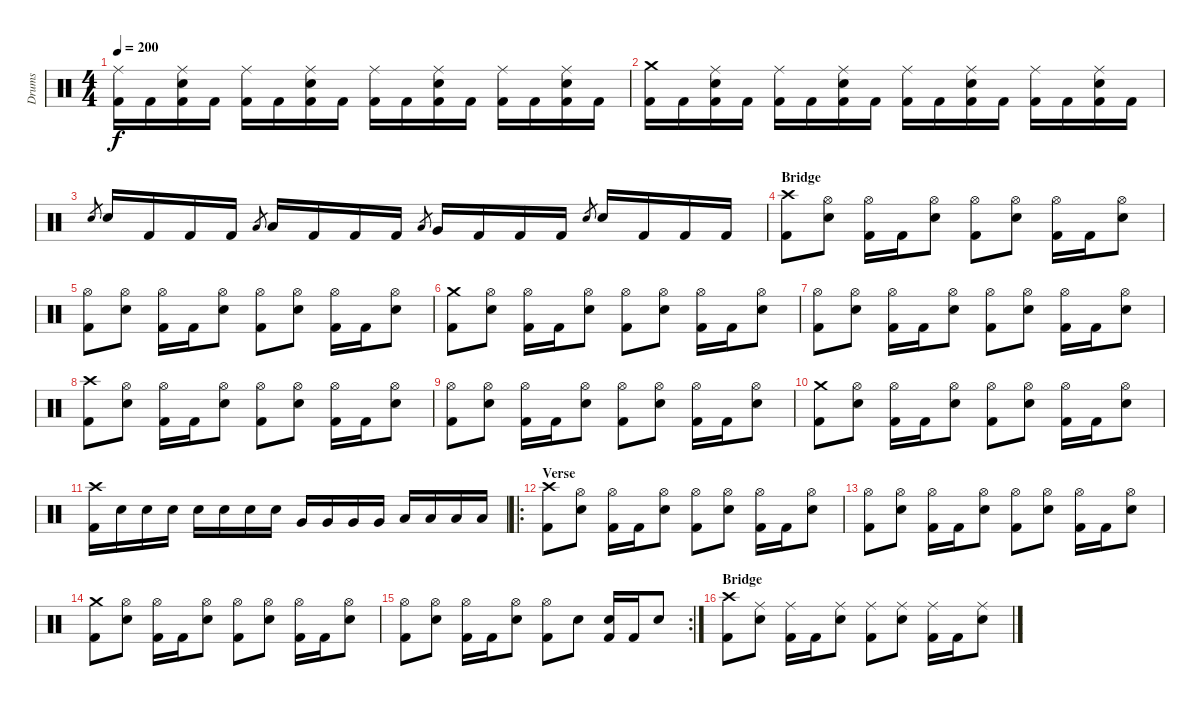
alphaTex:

\track ("Drums" "Drums") {instrument percussion}
\staff {score}
\articulation defaults
\ts (4 4)
\tempo 200
\clef neutral
\ks c
("Ride (middle)" "Kick (hit) 2").16{dy f} "Kick (hit) 2".16 ("Ride (middle)" "Electric Snare (hit)" "Kick (hit) 2").16 "Kick (hit) 2".16 ("Ride (middle)" "Kick (hit) 2").16 "Kick (hit) 2".16 ("Ride (middle)" "Electric Snare (hit)" "Kick (hit) 2").16 "Kick (hit) 2".16 ("Ride (middle)" "Kick (hit) 2").16 "Kick (hit) 2".16 ("Ride (middle)" "Electric Snare (hit)" "Kick (hit) 2").16 "Kick (hit) 2".16 ("Ride (middle)" "Kick (hit) 2").16 "Kick (hit) 2".16 ("Ride (middle)" "Electric Snare (hit)" "Kick (hit) 2").16 "Kick (hit) 2".16 |
("Crash medium (hit)" "Kick (hit) 2").16 "Kick (hit) 2".16 ("Ride (middle)" "Electric Snare (hit)" "Kick (hit) 2").16 "Kick (hit) 2".16 ("Ride (middle)" "Kick (hit) 2").16 "Kick (hit) 2".16 ("Ride (middle)" "Electric Snare (hit)" "Kick (hit) 2").16 "Kick (hit) 2".16 ("Ride (middle)" "Kick (hit) 2").16 "Kick (hit) 2".16 ("Ride (middle)" "Electric Snare (hit)" "Kick (hit) 2").16 "Kick (hit) 2".16 ("Ride (middle)" "Kick (hit) 2").16 "Kick (hit) 2".16 ("Ride (middle)" "Electric Snare (hit)" "Kick (hit) 2").16 "Kick (hit) 2".16 |
"Electric Snare (hit)".8{gr} "Electric Snare (hit)".16 "Kick (hit) 2".16 "Kick (hit) 2".16 "Kick (hit) 2".16 "Low Floor Tom (hit)".8{gr} "Low Tom (hit)".16 "Kick (hit) 2".16 "Kick (hit) 2".16 "Kick (hit) 2".16 "Low Floor Tom (hit)".8{gr} "Very Low Tom (hit)".16 "Kick (hit) 2".16 "Kick (hit) 2".16 "Kick (hit) 2".16 "Electric Snare (hit)".8{gr} "Electric Snare (hit)".16 "Kick (hit) 2".16 "Kick (hit) 2".16 "Kick (hit) 2".16 |
\section ("" "Bridge")
("Crash high (hit)" "Kick (hit) 2").8 ("Hi-Hat (open)" "Electric Snare (hit)").8 ("Hi-Hat (open)" "Kick (hit) 2").16 "Kick (hit) 2".16 ("Hi-Hat (open)" "Electric Snare (hit)").8 ("Hi-Hat (open)" "Kick (hit) 2").8 ("Hi-Hat (open)" "Electric Snare (hit)").8 ("Hi-Hat (open)" "Kick (hit) 2").16 "Kick (hit) 2".16 ("Hi-Hat (open)" "Electric Snare (hit)").8 |
("Hi-Hat (open)" "Kick (hit) 2").8 ("Hi-Hat (open)" "Electric Snare (hit)").8 ("Hi-Hat (open)" "Kick (hit) 2").16 "Kick (hit) 2".16 ("Hi-Hat (open)" "Electric Snare (hit)").8 ("Hi-Hat (open)" "Kick (hit) 2").8 ("Hi-Hat (open)" "Electric Snare (hit)").8 ("Hi-Hat (open)" "Kick (hit) 2").16 "Kick (hit) 2".16 ("Hi-Hat (open)" "Electric Snare (hit)").8 |
("Crash medium (hit)" "Kick (hit) 2").8 ("Hi-Hat (open)" "Electric Snare (hit)").8 ("Hi-Hat (open)" "Kick (hit) 2").16 "Kick (hit) 2".16 ("Hi-Hat (open)" "Electric Snare (hit)").8 ("Hi-Hat (open)" "Kick (hit) 2").8 ("Hi-Hat (open)" "Electric Snare (hit)").8 ("Hi-Hat (open)" "Kick (hit) 2").16 "Kick (hit) 2".16 ("Hi-Hat (open)" "Electric Snare (hit)").8 |
("Hi-Hat (open)" "Kick (hit) 2").8 ("Hi-Hat (open)" "Electric Snare (hit)").8 ("Hi-Hat (open)" "Kick (hit) 2").16 "Kick (hit) 2".16 ("Hi-Hat (open)" "Electric Snare (hit)").8 ("Hi-Hat (open)" "Kick (hit) 2").8 ("Hi-Hat (open)" "Electric Snare (hit)").8 ("Hi-Hat (open)" "Kick (hit) 2").16 "Kick (hit) 2".16 ("Hi-Hat (open)" "Electric Snare (hit)").8 |
("Crash high (hit)" "Kick (hit) 2").8 ("Hi-Hat (open)" "Electric Snare (hit)").8 ("Hi-Hat (open)" "Kick (hit) 2").16 "Kick (hit) 2".16 ("Hi-Hat (open)" "Electric Snare (hit)").8 ("Hi-Hat (open)" "Kick (hit) 2").8 ("Hi-Hat (open)" "Electric Snare (hit)").8 ("Hi-Hat (open)" "Kick (hit) 2").16 "Kick (hit) 2".16 ("Hi-Hat (open)" "Electric Snare (hit)").8 |
("Hi-Hat (open)" "Kick (hit) 2").8 ("Hi-Hat (open)" "Electric Snare (hit)").8 ("Hi-Hat (open)" "Kick (hit) 2").16 "Kick (hit) 2".16 ("Hi-Hat (open)" "Electric Snare (hit)").8 ("Hi-Hat (open)" "Kick (hit) 2").8 ("Hi-Hat (open)" "Electric Snare (hit)").8 ("Hi-Hat (open)" "Kick (hit) 2").16 "Kick (hit) 2".16 ("Hi-Hat (open)" "Electric Snare (hit)").8 |
("Crash medium (hit)" "Kick (hit) 2").8 ("Hi-Hat (open)" "Electric Snare (hit)").8 ("Hi-Hat (open)" "Kick (hit) 2").16 "Kick (hit) 2".16 ("Hi-Hat (open)" "Electric Snare (hit)").8 ("Hi-Hat (open)" "Kick (hit) 2").8 ("Hi-Hat (open)" "Electric Snare (hit)").8 ("Hi-Hat (open)" "Kick (hit) 2").16 "Kick (hit) 2".16 ("Hi-Hat (open)" "Electric Snare (hit)").8 |
("Crash high (hit)" "Kick (hit) 2").16 "Electric Snare (hit)".16 "Electric Snare (hit)".16 "Electric Snare (hit)".16 "Electric Snare (hit)".16 "Electric Snare (hit)".16 "Electric Snare (hit)".16 "Electric Snare (hit)".16 "Very Low Tom (hit)".16 "Very Low Tom (hit)".16 "Very Low Tom (hit)".16 "Very Low Tom (hit)".16 "Low Floor Tom (hit)".16 "Low Floor Tom (hit)".16 "Low Floor Tom (hit)".16 "Low Floor Tom (hit)".16 |
\ro
\section ("" "Verse")
("Crash high (hit)" "Kick (hit) 2").8 ("Hi-Hat (open)" "Electric Snare (hit)").8 ("Hi-Hat (open)" "Kick (hit) 2").16 "Kick (hit) 2".16 ("Hi-Hat (open)" "Electric Snare (hit)").8 ("Hi-Hat (open)" "Kick (hit) 2").8 ("Hi-Hat (open)" "Electric Snare (hit)").8 ("Hi-Hat (open)" "Kick (hit) 2").16 "Kick (hit) 2".16 ("Hi-Hat (open)" "Electric Snare (hit)").8 |
("Hi-Hat (open)" "Kick (hit) 2").8 ("Hi-Hat (open)" "Electric Snare (hit)").8 ("Hi-Hat (open)" "Kick (hit) 2").16 "Kick (hit) 2".16 ("Hi-Hat (open)" "Electric Snare (hit)").8 ("Hi-Hat (open)" "Kick (hit) 2").8 ("Hi-Hat (open)" "Electric Snare (hit)").8 ("Hi-Hat (open)" "Kick (hit) 2").16 "Kick (hit) 2".16 ("Hi-Hat (open)" "Electric Snare (hit)").8 |
("Crash medium (hit)" "Kick (hit) 2").8 ("Hi-Hat (open)" "Electric Snare (hit)").8 ("Hi-Hat (open)" "Kick (hit) 2").16 "Kick (hit) 2".16 ("Hi-Hat (open)" "Electric Snare (hit)").8 ("Hi-Hat (open)" "Kick (hit) 2").8 ("Hi-Hat (open)" "Electric Snare (hit)").8 ("Hi-Hat (open)" "Kick (hit) 2").16 "Kick (hit) 2".16 ("Hi-Hat (open)" "Electric Snare (hit)").8 |
\rc 2
("Hi-Hat (open)" "Kick (hit) 2").8 ("Hi-Hat (open)" "Electric Snare (hit)").8 ("Hi-Hat (open)" "Kick (hit) 2").16 "Kick (hit) 2".16 ("Hi-Hat (open)" "Electric Snare (hit)").8 ("Hi-Hat (open)" "Kick (hit) 2").8 "Electric Snare (hit)".8 ("Electric Snare (hit)" "Kick (hit) 2").16 "Kick (hit) 2".16 "Electric Snare (hit)".8 |
\section ("" "Bridge")
("Crash high (hit)" "Kick (hit) 2").8 ("Ride (middle)" "Electric Snare (hit)").8 ("Ride (middle)" "Kick (hit) 2").16 "Kick (hit) 2".16 ("Ride (middle)" "Electric Snare (hit)").8 ("Ride (middle)" "Kick (hit) 2").8 ("Ride (middle)" "Electric Snare (hit)").8 ("Ride (middle)" "Kick (hit) 2").16 "Kick (hit) 2".16 ("Ride (middle)" "Electric Snare (hit)").8
